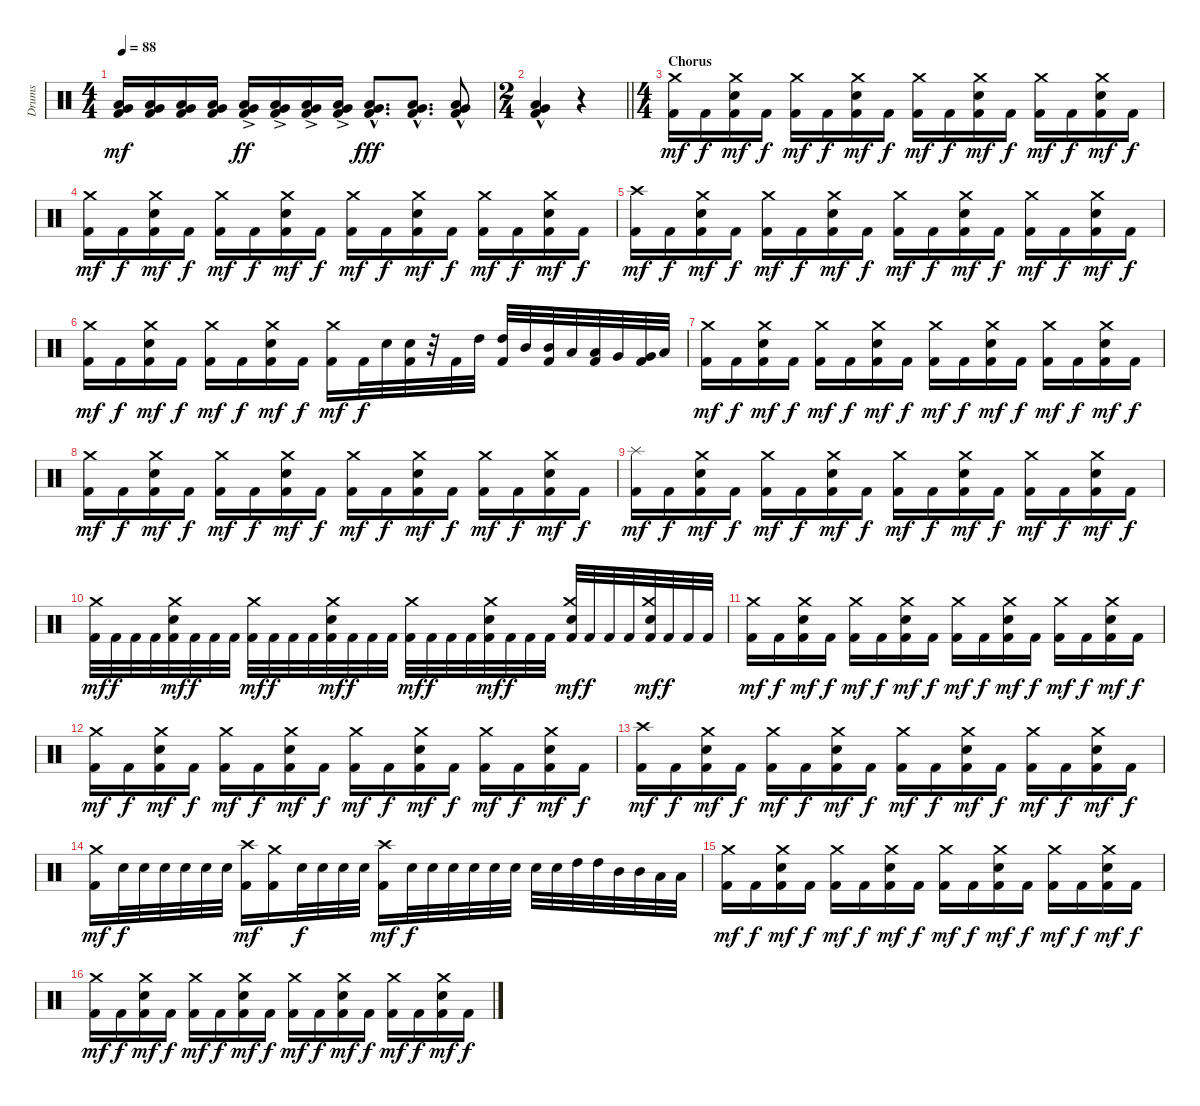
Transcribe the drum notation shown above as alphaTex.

\track ("Drums" "Drums") {instrument percussion}
\staff {score}
\articulation defaults
\ts (4 4)
\tempo 88
\clef neutral
\ks c
("Very Low Tom (hit)" "Low Floor Tom (hit)" "Kick (hit) 2").16{dy mf} ("Very Low Tom (hit)" "Low Floor Tom (hit)" "Kick (hit) 2").16 ("Very Low Tom (hit)" "Low Floor Tom (hit)" "Kick (hit) 2").16 ("Very Low Tom (hit)" "Low Floor Tom (hit)" "Kick (hit) 2").16 ("Very Low Tom (hit)"{ac} "Low Floor Tom (hit)"{ac} "Kick (hit) 2"{ac}).16{dy ff} ("Very Low Tom (hit)"{ac} "Low Floor Tom (hit)"{ac} "Kick (hit) 2"{ac}).16 ("Very Low Tom (hit)"{ac} "Low Floor Tom (hit)"{ac} "Kick (hit) 2"{ac}).16 ("Very Low Tom (hit)"{ac} "Low Floor Tom (hit)"{ac} "Kick (hit) 2"{ac}).16 ("Very Low Tom (hit)"{hac} "Low Floor Tom (hit)"{hac} "Kick (hit) 2"{hac}).8{d dy fff} ("Very Low Tom (hit)"{hac} "Low Floor Tom (hit)"{hac} "Kick (hit) 2"{hac}).8{d} ("Very Low Tom (hit)"{hac} "Low Floor Tom (hit)"{hac} "Kick (hit) 2"{hac}).8 |
\ts (2 4)
\barLineRight lightlight
("Very Low Tom (hit)"{hac} "Low Floor Tom (hit)"{hac} "Kick (hit) 2"{hac}).4 r.4 |
\ts (4 4)
\section ("" "Chorus")
("Crash medium (hit)" "Kick (hit) 2").16{dy mf} "Kick (hit) 2".16{dy f} ("Crash medium (hit)" "Electric Snare (hit)" "Kick (hit) 2").16{dy mf} "Kick (hit) 2".16{dy f} ("Crash medium (hit)" "Kick (hit) 2").16{dy mf} "Kick (hit) 2".16{dy f} ("Crash medium (hit)" "Electric Snare (hit)" "Kick (hit) 2").16{dy mf} "Kick (hit) 2".16{dy f} ("Crash medium (hit)" "Kick (hit) 2").16{dy mf} "Kick (hit) 2".16{dy f} ("Crash medium (hit)" "Electric Snare (hit)" "Kick (hit) 2").16{dy mf} "Kick (hit) 2".16{dy f} ("Crash medium (hit)" "Kick (hit) 2").16{dy mf} "Kick (hit) 2".16{dy f} ("Crash medium (hit)" "Electric Snare (hit)" "Kick (hit) 2").16{dy mf} "Kick (hit) 2".16{dy f} |
("Crash medium (hit)" "Kick (hit) 2").16{dy mf} "Kick (hit) 2".16{dy f} ("Crash medium (hit)" "Electric Snare (hit)" "Kick (hit) 2").16{dy mf} "Kick (hit) 2".16{dy f} ("Crash medium (hit)" "Kick (hit) 2").16{dy mf} "Kick (hit) 2".16{dy f} ("Crash medium (hit)" "Electric Snare (hit)" "Kick (hit) 2").16{dy mf} "Kick (hit) 2".16{dy f} ("Crash medium (hit)" "Kick (hit) 2").16{dy mf} "Kick (hit) 2".16{dy f} ("Crash medium (hit)" "Electric Snare (hit)" "Kick (hit) 2").16{dy mf} "Kick (hit) 2".16{dy f} ("Crash medium (hit)" "Kick (hit) 2").16{dy mf} "Kick (hit) 2".16{dy f} ("Crash medium (hit)" "Electric Snare (hit)" "Kick (hit) 2").16{dy mf} "Kick (hit) 2".16{dy f} |
("Crash high (hit)" "Kick (hit) 2").16{dy mf} "Kick (hit) 2".16{dy f} ("Crash medium (hit)" "Electric Snare (hit)" "Kick (hit) 2").16{dy mf} "Kick (hit) 2".16{dy f} ("Crash medium (hit)" "Kick (hit) 2").16{dy mf} "Kick (hit) 2".16{dy f} ("Crash medium (hit)" "Electric Snare (hit)" "Kick (hit) 2").16{dy mf} "Kick (hit) 2".16{dy f} ("Crash medium (hit)" "Kick (hit) 2").16{dy mf} "Kick (hit) 2".16{dy f} ("Crash medium (hit)" "Electric Snare (hit)" "Kick (hit) 2").16{dy mf} "Kick (hit) 2".16{dy f} ("Crash medium (hit)" "Kick (hit) 2").16{dy mf} "Kick (hit) 2".16{dy f} ("Crash medium (hit)" "Electric Snare (hit)" "Kick (hit) 2").16{dy mf} "Kick (hit) 2".16{dy f} |
("Crash medium (hit)" "Kick (hit) 2").16{dy mf} "Kick (hit) 2".16{dy f} ("Crash medium (hit)" "Electric Snare (hit)" "Kick (hit) 2").16{dy mf} "Kick (hit) 2".16{dy f} ("Crash medium (hit)" "Kick (hit) 2").16{dy mf} "Kick (hit) 2".16{dy f} ("Crash medium (hit)" "Electric Snare (hit)" "Kick (hit) 2").16{dy mf} "Kick (hit) 2".16{dy f} ("Crash medium (hit)" "Kick (hit) 2").16{dy mf} "Kick (hit) 2".32{dy f} "Electric Snare (hit)".32 ("Electric Snare (hit)" "Kick (hit) 2").32 r.32 "Kick (hit) 2".32 "High Tom (hit)".32 ("High Tom (hit)" "Kick (hit) 2").32 "Mid Tom (hit)".32 ("Mid Tom (hit)" "Kick (hit) 2").32 "Low Tom (hit)".32 ("Low Tom (hit)" "Kick (hit) 2").32 "Very Low Tom (hit)".32 ("Very Low Tom (hit)" "Kick (hit) 2").32 "Low Floor Tom (hit)".32 |
("Crash medium (hit)" "Kick (hit) 2").16{dy mf} "Kick (hit) 2".16{dy f} ("Crash medium (hit)" "Electric Snare (hit)" "Kick (hit) 2").16{dy mf} "Kick (hit) 2".16{dy f} ("Crash medium (hit)" "Kick (hit) 2").16{dy mf} "Kick (hit) 2".16{dy f} ("Crash medium (hit)" "Electric Snare (hit)" "Kick (hit) 2").16{dy mf} "Kick (hit) 2".16{dy f} ("Crash medium (hit)" "Kick (hit) 2").16{dy mf} "Kick (hit) 2".16{dy f} ("Crash medium (hit)" "Electric Snare (hit)" "Kick (hit) 2").16{dy mf} "Kick (hit) 2".16{dy f} ("Crash medium (hit)" "Kick (hit) 2").16{dy mf} "Kick (hit) 2".16{dy f} ("Crash medium (hit)" "Electric Snare (hit)" "Kick (hit) 2").16{dy mf} "Kick (hit) 2".16{dy f} |
("Crash medium (hit)" "Kick (hit) 2").16{dy mf} "Kick (hit) 2".16{dy f} ("Crash medium (hit)" "Electric Snare (hit)" "Kick (hit) 2").16{dy mf} "Kick (hit) 2".16{dy f} ("Crash medium (hit)" "Kick (hit) 2").16{dy mf} "Kick (hit) 2".16{dy f} ("Crash medium (hit)" "Electric Snare (hit)" "Kick (hit) 2").16{dy mf} "Kick (hit) 2".16{dy f} ("Crash medium (hit)" "Kick (hit) 2").16{dy mf} "Kick (hit) 2".16{dy f} ("Crash medium (hit)" "Electric Snare (hit)" "Kick (hit) 2").16{dy mf} "Kick (hit) 2".16{dy f} ("Crash medium (hit)" "Kick (hit) 2").16{dy mf} "Kick (hit) 2".16{dy f} ("Crash medium (hit)" "Electric Snare (hit)" "Kick (hit) 2").16{dy mf} "Kick (hit) 2".16{dy f} |
("Splash (hit)" "Kick (hit) 2").16{dy mf} "Kick (hit) 2".16{dy f} ("Crash medium (hit)" "Electric Snare (hit)" "Kick (hit) 2").16{dy mf} "Kick (hit) 2".16{dy f} ("Crash medium (hit)" "Kick (hit) 2").16{dy mf} "Kick (hit) 2".16{dy f} ("Crash medium (hit)" "Electric Snare (hit)" "Kick (hit) 2").16{dy mf} "Kick (hit) 2".16{dy f} ("Crash medium (hit)" "Kick (hit) 2").16{dy mf} "Kick (hit) 2".16{dy f} ("Crash medium (hit)" "Electric Snare (hit)" "Kick (hit) 2").16{dy mf} "Kick (hit) 2".16{dy f} ("Crash medium (hit)" "Kick (hit) 2").16{dy mf} "Kick (hit) 2".16{dy f} ("Crash medium (hit)" "Electric Snare (hit)" "Kick (hit) 2").16{dy mf} "Kick (hit) 2".16{dy f} |
("Crash medium (hit)" "Kick (hit) 2").32{dy mf} "Kick (hit) 2".32{dy f} "Kick (hit) 2".32 "Kick (hit) 2".32 ("Crash medium (hit)" "Electric Snare (hit)" "Kick (hit) 2").32{dy mf} "Kick (hit) 2".32{dy f} "Kick (hit) 2".32 "Kick (hit) 2".32 ("Crash medium (hit)" "Kick (hit) 2").32{dy mf} "Kick (hit) 2".32{dy f} "Kick (hit) 2".32 "Kick (hit) 2".32 ("Crash medium (hit)" "Electric Snare (hit)" "Kick (hit) 2").32{dy mf} "Kick (hit) 2".32{dy f} "Kick (hit) 2".32 "Kick (hit) 2".32 ("Crash medium (hit)" "Kick (hit) 2").32{dy mf} "Kick (hit) 2".32{dy f} "Kick (hit) 2".32 "Kick (hit) 2".32 ("Crash medium (hit)" "Electric Snare (hit)" "Kick (hit) 2").32{dy mf} "Kick (hit) 2".32{dy f} "Kick (hit) 2".32 "Kick (hit) 2".32 ("Crash medium (hit)" "Electric Snare (hit)" "Kick (hit) 2").32{dy mf} "Kick (hit) 2".32{dy f} "Kick (hit) 2".32 "Kick (hit) 2".32 ("Crash medium (hit)" "Electric Snare (hit)" "Kick (hit) 2").32{dy mf} "Kick (hit) 2".32{dy f} "Kick (hit) 2".32 "Kick (hit) 2".32 |
("Crash medium (hit)" "Kick (hit) 2").16{dy mf} "Kick (hit) 2".16{dy f} ("Crash medium (hit)" "Electric Snare (hit)" "Kick (hit) 2").16{dy mf} "Kick (hit) 2".16{dy f} ("Crash medium (hit)" "Kick (hit) 2").16{dy mf} "Kick (hit) 2".16{dy f} ("Crash medium (hit)" "Electric Snare (hit)" "Kick (hit) 2").16{dy mf} "Kick (hit) 2".16{dy f} ("Crash medium (hit)" "Kick (hit) 2").16{dy mf} "Kick (hit) 2".16{dy f} ("Crash medium (hit)" "Electric Snare (hit)" "Kick (hit) 2").16{dy mf} "Kick (hit) 2".16{dy f} ("Crash medium (hit)" "Kick (hit) 2").16{dy mf} "Kick (hit) 2".16{dy f} ("Crash medium (hit)" "Electric Snare (hit)" "Kick (hit) 2").16{dy mf} "Kick (hit) 2".16{dy f} |
("Crash medium (hit)" "Kick (hit) 2").16{dy mf} "Kick (hit) 2".16{dy f} ("Crash medium (hit)" "Electric Snare (hit)" "Kick (hit) 2").16{dy mf} "Kick (hit) 2".16{dy f} ("Crash medium (hit)" "Kick (hit) 2").16{dy mf} "Kick (hit) 2".16{dy f} ("Crash medium (hit)" "Electric Snare (hit)" "Kick (hit) 2").16{dy mf} "Kick (hit) 2".16{dy f} ("Crash medium (hit)" "Kick (hit) 2").16{dy mf} "Kick (hit) 2".16{dy f} ("Crash medium (hit)" "Electric Snare (hit)" "Kick (hit) 2").16{dy mf} "Kick (hit) 2".16{dy f} ("Crash medium (hit)" "Kick (hit) 2").16{dy mf} "Kick (hit) 2".16{dy f} ("Crash medium (hit)" "Electric Snare (hit)" "Kick (hit) 2").16{dy mf} "Kick (hit) 2".16{dy f} |
("Crash high (hit)" "Kick (hit) 2").16{dy mf} "Kick (hit) 2".16{dy f} ("Crash medium (hit)" "Electric Snare (hit)" "Kick (hit) 2").16{dy mf} "Kick (hit) 2".16{dy f} ("Crash medium (hit)" "Kick (hit) 2").16{dy mf} "Kick (hit) 2".16{dy f} ("Crash medium (hit)" "Electric Snare (hit)" "Kick (hit) 2").16{dy mf} "Kick (hit) 2".16{dy f} ("Crash medium (hit)" "Kick (hit) 2").16{dy mf} "Kick (hit) 2".16{dy f} ("Crash medium (hit)" "Electric Snare (hit)" "Kick (hit) 2").16{dy mf} "Kick (hit) 2".16{dy f} ("Crash medium (hit)" "Kick (hit) 2").16{dy mf} "Kick (hit) 2".16{dy f} ("Crash medium (hit)" "Electric Snare (hit)" "Kick (hit) 2").16{dy mf} "Kick (hit) 2".16{dy f} |
("Crash medium (hit)" "Kick (hit) 2").16{dy mf} "Electric Snare (hit)".32{dy f} "Electric Snare (hit)".32 "Electric Snare (hit)".32 "Electric Snare (hit)".32 "Electric Snare (hit)".32 "Electric Snare (hit)".32 ("Crash high (hit)" "Kick (hit) 2").16{dy mf} ("Crash medium (hit)" "Kick (hit) 2").16 "Electric Snare (hit)".32{dy f} "Electric Snare (hit)".32 "Electric Snare (hit)".32 "Electric Snare (hit)".32 ("Crash high (hit)" "Kick (hit) 2").16{dy mf} "Electric Snare (hit)".32{dy f} "Electric Snare (hit)".32 "Electric Snare (hit)".32 "Electric Snare (hit)".32 "Electric Snare (hit)".32 "Electric Snare (hit)".32 "Electric Snare (hit)".32 "Electric Snare (hit)".32 "High Tom (hit)".32 "High Tom (hit)".32 "Mid Tom (hit)".32 "Mid Tom (hit)".32 "Low Tom (hit)".32 "Low Tom (hit)".32 |
("Crash medium (hit)" "Kick (hit) 2").16{dy mf} "Kick (hit) 2".16{dy f} ("Crash medium (hit)" "Electric Snare (hit)" "Kick (hit) 2").16{dy mf} "Kick (hit) 2".16{dy f} ("Crash medium (hit)" "Kick (hit) 2").16{dy mf} "Kick (hit) 2".16{dy f} ("Crash medium (hit)" "Electric Snare (hit)" "Kick (hit) 2").16{dy mf} "Kick (hit) 2".16{dy f} ("Crash medium (hit)" "Kick (hit) 2").16{dy mf} "Kick (hit) 2".16{dy f} ("Crash medium (hit)" "Electric Snare (hit)" "Kick (hit) 2").16{dy mf} "Kick (hit) 2".16{dy f} ("Crash medium (hit)" "Kick (hit) 2").16{dy mf} "Kick (hit) 2".16{dy f} ("Crash medium (hit)" "Electric Snare (hit)" "Kick (hit) 2").16{dy mf} "Kick (hit) 2".16{dy f} |
("Crash medium (hit)" "Kick (hit) 2").16{dy mf} "Kick (hit) 2".16{dy f} ("Crash medium (hit)" "Electric Snare (hit)" "Kick (hit) 2").16{dy mf} "Kick (hit) 2".16{dy f} ("Crash medium (hit)" "Kick (hit) 2").16{dy mf} "Kick (hit) 2".16{dy f} ("Crash medium (hit)" "Electric Snare (hit)" "Kick (hit) 2").16{dy mf} "Kick (hit) 2".16{dy f} ("Crash medium (hit)" "Kick (hit) 2").16{dy mf} "Kick (hit) 2".16{dy f} ("Crash medium (hit)" "Electric Snare (hit)" "Kick (hit) 2").16{dy mf} "Kick (hit) 2".16{dy f} ("Crash medium (hit)" "Kick (hit) 2").16{dy mf} "Kick (hit) 2".16{dy f} ("Crash medium (hit)" "Electric Snare (hit)" "Kick (hit) 2").16{dy mf} "Kick (hit) 2".16{dy f}
